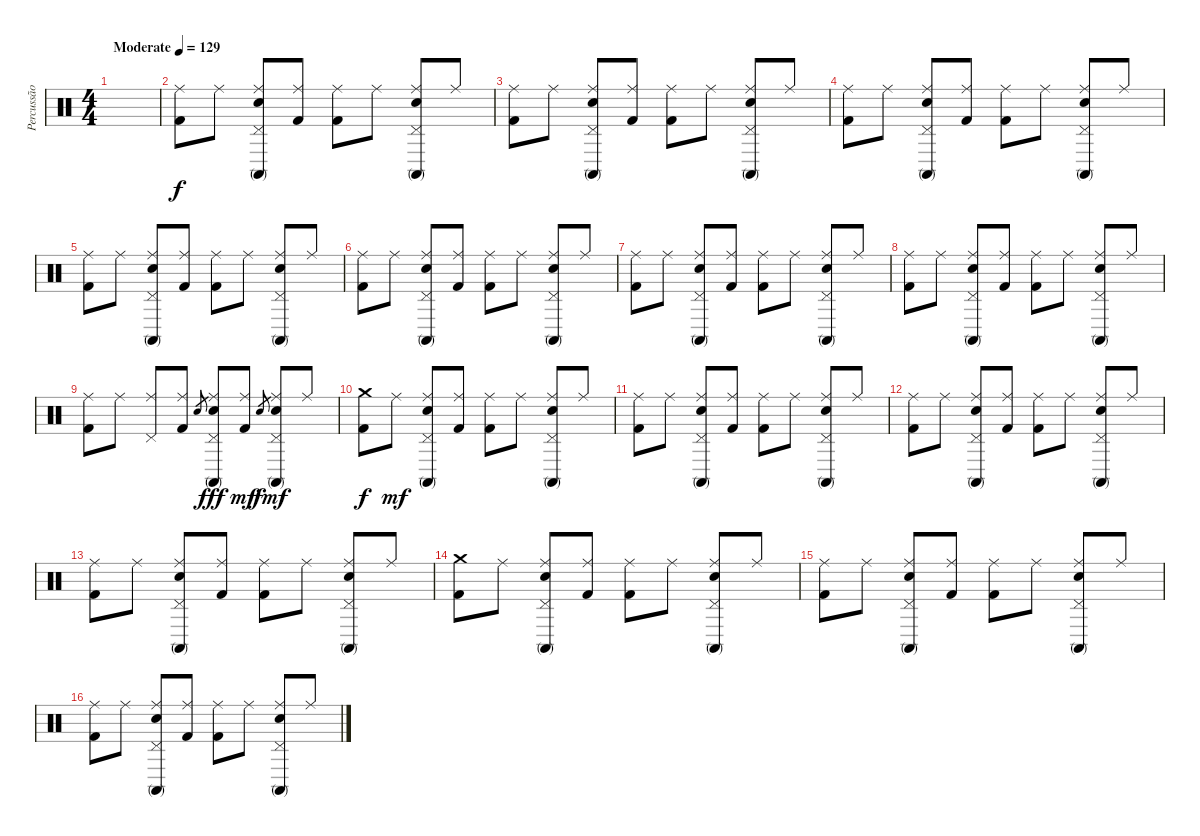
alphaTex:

\track ("Percussão" "Percussão") {instrument percussion}
\staff {score}
\articulation defaults
\ts (4 4)
\tempo (129 "Moderate")
\clef neutral
\ks c
|
("Ride (middle)" "Kick (hit) 2").8 "Ride (middle)".8 ("Ride (middle)" "Snare (hit) 2" "Conga high (mute)" "Pedal Hi-Hat (hit)").8 ("Ride (middle)" "Kick (hit) 2").8 ("Ride (middle)" "Kick (hit) 2").8 "Ride (middle)".8 ("Ride (middle)" "Snare (hit) 2" "Conga high (mute)" "Pedal Hi-Hat (hit)").8 "Ride (middle)".8 |
("Ride (middle)" "Kick (hit) 2").8 "Ride (middle)".8 ("Ride (middle)" "Snare (hit) 2" "Conga high (mute)" "Pedal Hi-Hat (hit)").8 ("Ride (middle)" "Kick (hit) 2").8 ("Ride (middle)" "Kick (hit) 2").8 "Ride (middle)".8 ("Ride (middle)" "Snare (hit) 2" "Conga high (mute)" "Pedal Hi-Hat (hit)").8 "Ride (middle)".8 |
("Ride (middle)" "Kick (hit) 2").8 "Ride (middle)".8 ("Ride (middle)" "Snare (hit) 2" "Conga high (mute)" "Pedal Hi-Hat (hit)").8 ("Ride (middle)" "Kick (hit) 2").8 ("Ride (middle)" "Kick (hit) 2").8 "Ride (middle)".8 ("Ride (middle)" "Snare (hit) 2" "Conga high (mute)" "Pedal Hi-Hat (hit)").8 "Ride (middle)".8 |
("Ride (middle)" "Kick (hit) 2").8 "Ride (middle)".8 ("Ride (middle)" "Snare (hit) 2" "Conga high (mute)" "Pedal Hi-Hat (hit)").8 ("Ride (middle)" "Kick (hit) 2").8 ("Ride (middle)" "Kick (hit) 2").8 "Ride (middle)".8 ("Ride (middle)" "Snare (hit) 2" "Conga high (mute)" "Pedal Hi-Hat (hit)").8 "Ride (middle)".8 |
("Ride (middle)" "Kick (hit) 2").8 "Ride (middle)".8 ("Ride (middle)" "Snare (hit) 2" "Conga high (mute)" "Pedal Hi-Hat (hit)").8 ("Ride (middle)" "Kick (hit) 2").8 ("Ride (middle)" "Kick (hit) 2").8 "Ride (middle)".8 ("Ride (middle)" "Snare (hit) 2" "Conga high (mute)" "Pedal Hi-Hat (hit)").8 "Ride (middle)".8 |
("Ride (middle)" "Kick (hit) 2").8 "Ride (middle)".8 ("Ride (middle)" "Snare (hit) 2" "Conga high (mute)" "Pedal Hi-Hat (hit)").8 ("Ride (middle)" "Kick (hit) 2").8 ("Ride (middle)" "Kick (hit) 2").8 "Ride (middle)".8 ("Ride (middle)" "Snare (hit) 2" "Conga high (mute)" "Pedal Hi-Hat (hit)").8 "Ride (middle)".8 |
("Ride (middle)" "Kick (hit) 2").8 "Ride (middle)".8 ("Ride (middle)" "Snare (hit) 2" "Conga high (mute)" "Pedal Hi-Hat (hit)").8 ("Ride (middle)" "Kick (hit) 2").8 ("Ride (middle)" "Kick (hit) 2").8 "Ride (middle)".8 ("Ride (middle)" "Snare (hit) 2" "Conga high (mute)" "Pedal Hi-Hat (hit)").8 "Ride (middle)".8 |
("Ride (middle)" "Kick (hit) 2").8 "Ride (middle)".8 ("Ride (middle)" "Pedal Hi-Hat (hit)").8 ("Ride (middle)" "Kick (hit) 2").8 "Snare (hit) 2".8{gr dy f} ("Ride (middle)" "Snare (hit) 2" "Conga high (mute)" "Pedal Hi-Hat (hit)").8{dy fff} ("Ride (middle)" "Kick (hit) 2").8{dy mf} "Snare (hit) 2".8{gr dy f} ("Ride (middle)" "Snare (hit) 2" "Conga high (mute)" "Pedal Hi-Hat (hit)").8{dy mf} "Ride (middle)".8 |
("Crash medium (hit)" "Kick (hit) 2").8{dy f} "Ride (middle)".8{dy mf} ("Ride (middle)" "Snare (hit) 2" "Conga high (mute)" "Pedal Hi-Hat (hit)").8 ("Ride (middle)" "Kick (hit) 2").8 ("Ride (middle)" "Kick (hit) 2").8 "Ride (middle)".8 ("Ride (middle)" "Snare (hit) 2" "Conga high (mute)" "Pedal Hi-Hat (hit)").8 "Ride (middle)".8 |
("Ride (middle)" "Kick (hit) 2").8 "Ride (middle)".8 ("Ride (middle)" "Snare (hit) 2" "Conga high (mute)" "Pedal Hi-Hat (hit)").8 ("Ride (middle)" "Kick (hit) 2").8 ("Ride (middle)" "Kick (hit) 2").8 "Ride (middle)".8 ("Ride (middle)" "Snare (hit) 2" "Conga high (mute)" "Pedal Hi-Hat (hit)").8 "Ride (middle)".8 |
("Ride (middle)" "Kick (hit) 2").8 "Ride (middle)".8 ("Ride (middle)" "Snare (hit) 2" "Conga high (mute)" "Pedal Hi-Hat (hit)").8 ("Ride (middle)" "Kick (hit) 2").8 ("Ride (middle)" "Kick (hit) 2").8 "Ride (middle)".8 ("Ride (middle)" "Snare (hit) 2" "Conga high (mute)" "Pedal Hi-Hat (hit)").8 "Ride (middle)".8 |
("Ride (middle)" "Kick (hit) 2").8 "Ride (middle)".8 ("Ride (middle)" "Snare (hit) 2" "Conga high (mute)" "Pedal Hi-Hat (hit)").8 ("Ride (middle)" "Kick (hit) 2").8 ("Ride (middle)" "Kick (hit) 2").8 "Ride (middle)".8 ("Ride (middle)" "Snare (hit) 2" "Conga high (mute)" "Pedal Hi-Hat (hit)").8 "Ride (middle)".8 |
("Crash medium (hit)" "Kick (hit) 2").8 "Ride (middle)".8 ("Ride (middle)" "Snare (hit) 2" "Conga high (mute)" "Pedal Hi-Hat (hit)").8 ("Ride (middle)" "Kick (hit) 2").8 ("Ride (middle)" "Kick (hit) 2").8 "Ride (middle)".8 ("Ride (middle)" "Snare (hit) 2" "Conga high (mute)" "Pedal Hi-Hat (hit)").8 "Ride (middle)".8 |
("Ride (middle)" "Kick (hit) 2").8 "Ride (middle)".8 ("Ride (middle)" "Snare (hit) 2" "Conga high (mute)" "Pedal Hi-Hat (hit)").8 ("Ride (middle)" "Kick (hit) 2").8 ("Ride (middle)" "Kick (hit) 2").8 "Ride (middle)".8 ("Ride (middle)" "Snare (hit) 2" "Conga high (mute)" "Pedal Hi-Hat (hit)").8 "Ride (middle)".8 |
("Ride (middle)" "Kick (hit) 2").8 "Ride (middle)".8 ("Ride (middle)" "Snare (hit) 2" "Conga high (mute)" "Pedal Hi-Hat (hit)").8 ("Ride (middle)" "Kick (hit) 2").8 ("Ride (middle)" "Kick (hit) 2").8 "Ride (middle)".8 ("Ride (middle)" "Snare (hit) 2" "Conga high (mute)" "Pedal Hi-Hat (hit)").8 "Ride (middle)".8
